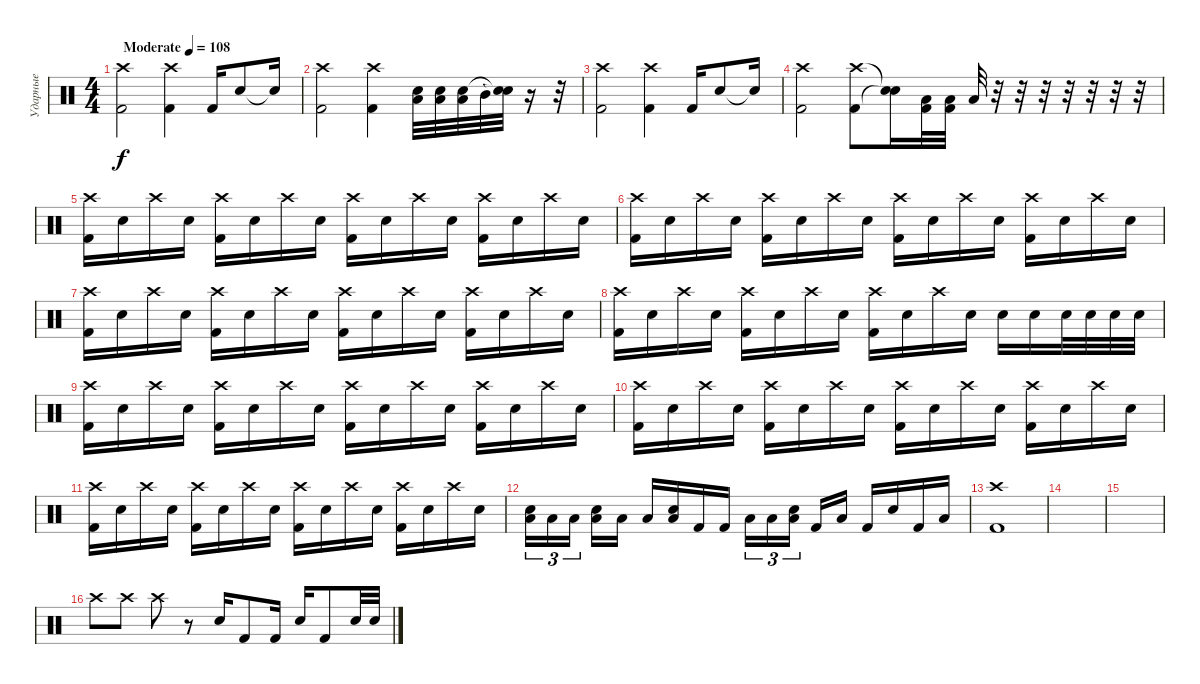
\track ("Ударные" "Ударные") {instrument percussion}
\staff {score}
\articulation defaults
\ts (4 4)
\tempo (108 "Moderate")
\clef neutral
\ks c
("Crash high (hit)" "Kick (hit) 2").2{dy f} ("Crash high (hit)" "Kick (hit) 2").4 "Kick (hit) 2".16 "Electric Snare (hit)".8 "Snare (hit)"{t}.16 |
("Crash high (hit)" "Kick (hit) 2").2 ("Crash high (hit)" "Kick (hit) 2").4 ("Low Floor Tom (hit)" "Electric Snare (hit)").32 ("Low Floor Tom (hit)" "Electric Snare (hit)").32 ("Low Tom (hit)" "Electric Snare (hit)").32 "Mid Tom (hit)".32 ("Snare (hit)"{t} "Snare (hit)"{t}).32 r.16 r.32 |
("Crash high (hit)" "Kick (hit) 2").2 ("Crash high (hit)" "Kick (hit) 2").4 "Kick (hit) 2".16 "Electric Snare (hit)".8 "Snare (hit)"{t}.16 |
("Crash high (hit)" "Kick (hit) 2").2 ("Crash high (hit)" "Kick (hit) 2").8 ("Snare (hit)"{t} "Snare (hit)"{t}).16 ("Low Tom (hit)" "Kick (hit) 2").32 ("Low Tom (hit)" "Kick (hit) 2").32 "Low Tom (hit)".32 r.32 r.32 r.32 r.32 r.32 r.32 r.32 |
("Crash high (hit)" "Kick (hit) 2").16 "Electric Snare (hit)".16 "Crash high (hit)".16 "Electric Snare (hit)".16 ("Crash high (hit)" "Kick (hit) 2").16 "Electric Snare (hit)".16 "Crash high (hit)".16 "Electric Snare (hit)".16 ("Crash high (hit)" "Kick (hit) 2").16 "Electric Snare (hit)".16 "Crash high (hit)".16 "Electric Snare (hit)".16 ("Crash high (hit)" "Kick (hit) 2").16 "Electric Snare (hit)".16 "Crash high (hit)".16 "Electric Snare (hit)".16 |
("Crash high (hit)" "Kick (hit) 2").16 "Electric Snare (hit)".16 "Crash high (hit)".16 "Electric Snare (hit)".16 ("Crash high (hit)" "Kick (hit) 2").16 "Electric Snare (hit)".16 "Crash high (hit)".16 "Electric Snare (hit)".16 ("Crash high (hit)" "Kick (hit) 2").16 "Electric Snare (hit)".16 "Crash high (hit)".16 "Electric Snare (hit)".16 ("Crash high (hit)" "Kick (hit) 2").16 "Electric Snare (hit)".16 "Crash high (hit)".16 "Electric Snare (hit)".16 |
("Crash high (hit)" "Kick (hit) 2").16 "Electric Snare (hit)".16 "Crash high (hit)".16 "Electric Snare (hit)".16 ("Crash high (hit)" "Kick (hit) 2").16 "Electric Snare (hit)".16 "Crash high (hit)".16 "Electric Snare (hit)".16 ("Crash high (hit)" "Kick (hit) 2").16 "Electric Snare (hit)".16 "Crash high (hit)".16 "Electric Snare (hit)".16 ("Crash high (hit)" "Kick (hit) 2").16 "Electric Snare (hit)".16 "Crash high (hit)".16 "Electric Snare (hit)".16 |
("Crash high (hit)" "Kick (hit) 2").16 "Electric Snare (hit)".16 "Crash high (hit)".16 "Electric Snare (hit)".16 ("Crash high (hit)" "Kick (hit) 2").16 "Electric Snare (hit)".16 "Crash high (hit)".16 "Electric Snare (hit)".16 ("Crash high (hit)" "Kick (hit) 2").16 "Electric Snare (hit)".16 "Crash high (hit)".16 "Electric Snare (hit)".16 "Electric Snare (hit)".16 "Electric Snare (hit)".16 "Electric Snare (hit)".32 "Electric Snare (hit)".32 "Electric Snare (hit)".32 "Electric Snare (hit)".32 |
("Crash high (hit)" "Kick (hit) 2").16 "Electric Snare (hit)".16 "Crash high (hit)".16 "Electric Snare (hit)".16 ("Crash high (hit)" "Kick (hit) 2").16 "Electric Snare (hit)".16 "Crash high (hit)".16 "Electric Snare (hit)".16 ("Crash high (hit)" "Kick (hit) 2").16 "Electric Snare (hit)".16 "Crash high (hit)".16 "Electric Snare (hit)".16 ("Crash high (hit)" "Kick (hit) 2").16 "Electric Snare (hit)".16 "Crash high (hit)".16 "Electric Snare (hit)".16 |
("Crash high (hit)" "Kick (hit) 2").16 "Electric Snare (hit)".16 "Crash high (hit)".16 "Electric Snare (hit)".16 ("Crash high (hit)" "Kick (hit) 2").16 "Electric Snare (hit)".16 "Crash high (hit)".16 "Electric Snare (hit)".16 ("Crash high (hit)" "Kick (hit) 2").16 "Electric Snare (hit)".16 "Crash high (hit)".16 "Electric Snare (hit)".16 ("Crash high (hit)" "Kick (hit) 2").16 "Electric Snare (hit)".16 "Crash high (hit)".16 "Electric Snare (hit)".16 |
("Crash high (hit)" "Kick (hit) 2").16 "Electric Snare (hit)".16 "Crash high (hit)".16 "Electric Snare (hit)".16 ("Crash high (hit)" "Kick (hit) 2").16 "Electric Snare (hit)".16 "Crash high (hit)".16 "Electric Snare (hit)".16 ("Crash high (hit)" "Kick (hit) 2").16 "Electric Snare (hit)".16 "Crash high (hit)".16 "Electric Snare (hit)".16 ("Crash high (hit)" "Kick (hit) 2").16 "Electric Snare (hit)".16 "Crash high (hit)".16 "Electric Snare (hit)".16 |
("Electric Snare (hit)" "Low Tom (hit)").16{tu (3 2)} "Low Tom (hit)".16{tu (3 2)} "Low Tom (hit)".16{tu (3 2) beam splitsecondary} ("Electric Snare (hit)" "Low Floor Tom (hit)").16 "Low Floor Tom (hit)".16 "Low Floor Tom (hit)".16 ("Electric Snare (hit)" "Low Floor Tom (hit)").16 "Kick (hit) 2".16 "Kick (hit) 2".16 "Low Floor Tom (hit)".16{tu (3 2)} "Low Tom (hit)".16{tu (3 2)} ("Electric Snare (hit)" "Low Tom (hit)").16{tu (3 2) beam splitsecondary} "Kick (hit) 2".16 "Low Tom (hit)".16 "Kick (hit) 2".16 "Electric Snare (hit)".16 "Kick (hit) 2".16 "Low Tom (hit)".16 |
("Crash high (hit)" "Kick (hit) 2").1 |
|
|
"Crash high (hit)".8 "Crash high (hit)".8 "Crash high (hit)".8 r.8 "Electric Snare (hit)".16 "Kick (hit) 2".8 "Kick (hit) 2".16 "Electric Snare (hit)".16 "Kick (hit) 2".8 "Electric Snare (hit)".32 "Electric Snare (hit)".32
